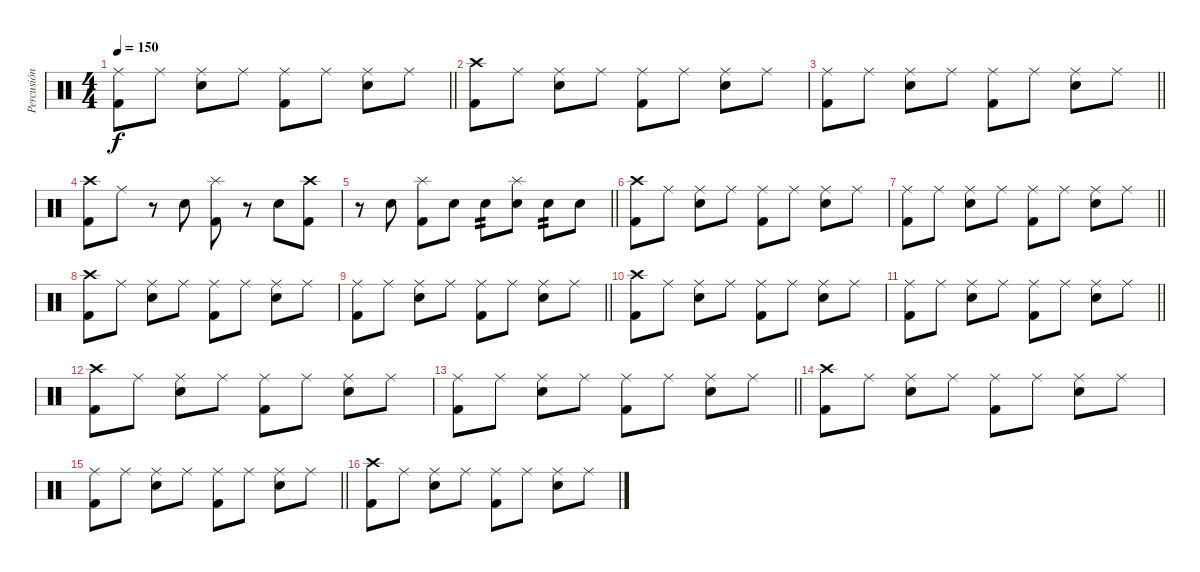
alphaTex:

\track ("Percusión" "Percusión") {instrument percussion}
\staff {score}
\articulation defaults
\ts (4 4)
\tempo 150
\clef neutral
\barLineRight lightlight
\ks c
("Ride (middle)" "Kick (hit) 2").8{dy f} "Ride (middle)".8 ("Ride (middle)" "Snare (hit) 2").8 "Ride (middle)".8 ("Ride (middle)" "Kick (hit) 2").8 "Ride (middle)".8 ("Ride (middle)" "Snare (hit) 2").8 "Ride (middle)".8 |
("Crash high (hit)" "Kick (hit) 2").8 "Ride (middle)".8 ("Ride (middle)" "Snare (hit) 2").8 "Ride (middle)".8 ("Ride (middle)" "Kick (hit) 2").8 "Ride (middle)".8 ("Ride (middle)" "Snare (hit) 2").8 "Ride (middle)".8 |
\barLineRight lightlight
("Ride (middle)" "Kick (hit) 2").8 "Ride (middle)".8 ("Ride (middle)" "Snare (hit) 2").8 "Ride (middle)".8 ("Ride (middle)" "Kick (hit) 2").8 "Ride (middle)".8 ("Ride (middle)" "Snare (hit) 2").8 "Ride (middle)".8 |
("Crash high (hit)" "Kick (hit) 2").8 "Ride (middle)".8 r.8 "Snare (hit) 2".8 ("Splash (hit)" "Kick (hit) 2").8 r.8 "Snare (hit) 2".8 ("Crash high (hit)" "Kick (hit) 2").8 |
\barLineRight lightlight
r.8 "Snare (hit) 2".8 ("Splash (hit)" "Kick (hit) 2").8 "Snare (hit) 2".8 "Snare (hit) 2".8{tp 2} ("Splash (hit)" "Snare (hit) 2").8 "Snare (hit) 2".8{tp 2} "Snare (hit) 2".8 |
("Crash high (hit)" "Kick (hit) 2").8 "Ride (middle)".8 ("Ride (middle)" "Snare (hit) 2").8 "Ride (middle)".8 ("Ride (middle)" "Kick (hit) 2").8 "Ride (middle)".8 ("Ride (middle)" "Snare (hit) 2").8 "Ride (middle)".8 |
\barLineRight lightlight
("Ride (middle)" "Kick (hit) 2").8 "Ride (middle)".8 ("Ride (middle)" "Snare (hit) 2").8 "Ride (middle)".8 ("Ride (middle)" "Kick (hit) 2").8 "Ride (middle)".8 ("Ride (middle)" "Snare (hit) 2").8 "Ride (middle)".8 |
("Crash high (hit)" "Kick (hit) 2").8 "Ride (middle)".8 ("Ride (middle)" "Snare (hit) 2").8 "Ride (middle)".8 ("Ride (middle)" "Kick (hit) 2").8 "Ride (middle)".8 ("Ride (middle)" "Snare (hit) 2").8 "Ride (middle)".8 |
\barLineRight lightlight
("Ride (middle)" "Kick (hit) 2").8 "Ride (middle)".8 ("Ride (middle)" "Snare (hit) 2").8 "Ride (middle)".8 ("Ride (middle)" "Kick (hit) 2").8 "Ride (middle)".8 ("Ride (middle)" "Snare (hit) 2").8 "Ride (middle)".8 |
("Crash high (hit)" "Kick (hit) 2").8 "Ride (middle)".8 ("Ride (middle)" "Snare (hit) 2").8 "Ride (middle)".8 ("Ride (middle)" "Kick (hit) 2").8 "Ride (middle)".8 ("Ride (middle)" "Snare (hit) 2").8 "Ride (middle)".8 |
\barLineRight lightlight
("Ride (middle)" "Kick (hit) 2").8 "Ride (middle)".8 ("Ride (middle)" "Snare (hit) 2").8 "Ride (middle)".8 ("Ride (middle)" "Kick (hit) 2").8 "Ride (middle)".8 ("Ride (middle)" "Snare (hit) 2").8 "Ride (middle)".8 |
("Crash high (hit)" "Kick (hit) 2").8 "Ride (middle)".8 ("Ride (middle)" "Snare (hit) 2").8 "Ride (middle)".8 ("Ride (middle)" "Kick (hit) 2").8 "Ride (middle)".8 ("Ride (middle)" "Snare (hit) 2").8 "Ride (middle)".8 |
\barLineRight lightlight
("Ride (middle)" "Kick (hit) 2").8 "Ride (middle)".8 ("Ride (middle)" "Snare (hit) 2").8 "Ride (middle)".8 ("Ride (middle)" "Kick (hit) 2").8 "Ride (middle)".8 ("Ride (middle)" "Snare (hit) 2").8 "Ride (middle)".8 |
("Crash high (hit)" "Kick (hit) 2").8 "Ride (middle)".8 ("Ride (middle)" "Snare (hit) 2").8 "Ride (middle)".8 ("Ride (middle)" "Kick (hit) 2").8 "Ride (middle)".8 ("Ride (middle)" "Snare (hit) 2").8 "Ride (middle)".8 |
\barLineRight lightlight
("Ride (middle)" "Kick (hit) 2").8 "Ride (middle)".8 ("Ride (middle)" "Snare (hit) 2").8 "Ride (middle)".8 ("Ride (middle)" "Kick (hit) 2").8 "Ride (middle)".8 ("Ride (middle)" "Snare (hit) 2").8 "Ride (middle)".8 |
("Crash high (hit)" "Kick (hit) 2").8 "Ride (middle)".8 ("Ride (middle)" "Snare (hit) 2").8 "Ride (middle)".8 ("Ride (middle)" "Kick (hit) 2").8 "Ride (middle)".8 ("Ride (middle)" "Snare (hit) 2").8 "Ride (middle)".8
